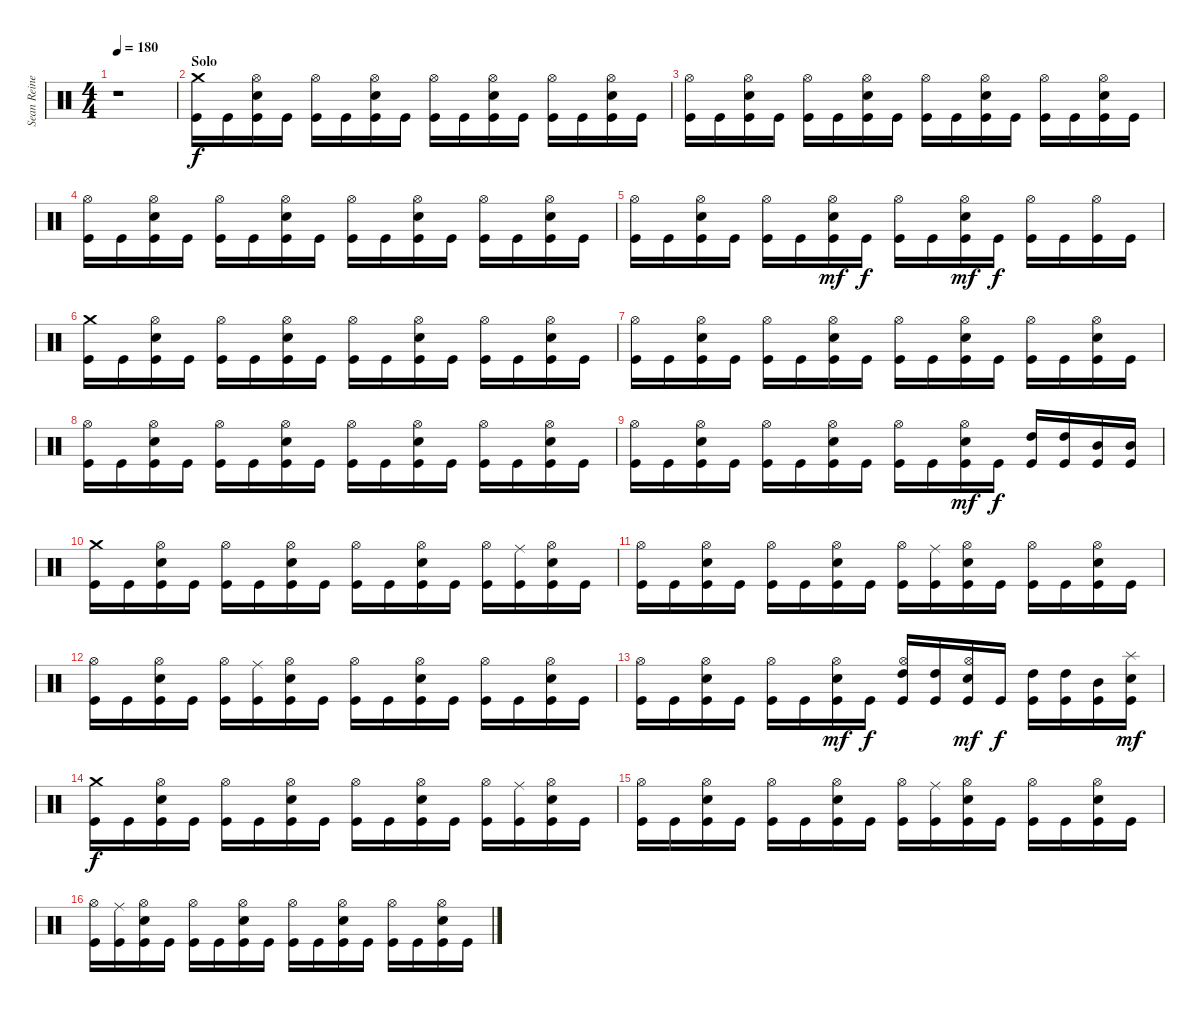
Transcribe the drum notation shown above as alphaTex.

\track ("Sean Reinert " "Sean Reine") {instrument percussion}
\staff {score}
\articulation defaults
\ts (4 4)
\tempo 180
\clef neutral
\ks c
r.1{dy f} |
\section ("" "Solo")
("Crash medium (hit)" "Kick (hit)").16 "Kick (hit)".16 ("Hi-Hat (open)" "Electric Snare (hit)" "Kick (hit)").16 "Kick (hit)".16 ("Hi-Hat (open)" "Kick (hit)").16 "Kick (hit)".16 ("Hi-Hat (open)" "Electric Snare (hit)" "Kick (hit)").16 "Kick (hit)".16 ("Hi-Hat (open)" "Kick (hit)").16 "Kick (hit)".16 ("Hi-Hat (open)" "Electric Snare (hit)" "Kick (hit)").16 "Kick (hit)".16 ("Hi-Hat (open)" "Kick (hit)").16 "Kick (hit)".16 ("Hi-Hat (open)" "Electric Snare (hit)" "Kick (hit)").16 "Kick (hit)".16 |
("Hi-Hat (open)" "Kick (hit)").16 "Kick (hit)".16 ("Hi-Hat (open)" "Electric Snare (hit)" "Kick (hit)").16 "Kick (hit)".16 ("Hi-Hat (open)" "Kick (hit)").16 "Kick (hit)".16 ("Hi-Hat (open)" "Electric Snare (hit)" "Kick (hit)").16 "Kick (hit)".16 ("Hi-Hat (open)" "Kick (hit)").16 "Kick (hit)".16 ("Hi-Hat (open)" "Electric Snare (hit)" "Kick (hit)").16 "Kick (hit)".16 ("Hi-Hat (open)" "Kick (hit)").16 "Kick (hit)".16 ("Hi-Hat (open)" "Electric Snare (hit)" "Kick (hit)").16 "Kick (hit)".16 |
("Hi-Hat (open)" "Kick (hit)").16 "Kick (hit)".16 ("Hi-Hat (open)" "Electric Snare (hit)" "Kick (hit)").16 "Kick (hit)".16 ("Hi-Hat (open)" "Kick (hit)").16 "Kick (hit)".16 ("Hi-Hat (open)" "Electric Snare (hit)" "Kick (hit)").16 "Kick (hit)".16 ("Hi-Hat (open)" "Kick (hit)").16 "Kick (hit)".16 ("Hi-Hat (open)" "Electric Snare (hit)" "Kick (hit)").16 "Kick (hit)".16 ("Hi-Hat (open)" "Kick (hit)").16 "Kick (hit)".16 ("Hi-Hat (open)" "Electric Snare (hit)" "Kick (hit)").16 "Kick (hit)".16 |
("Hi-Hat (open)" "Kick (hit)").16 "Kick (hit)".16 ("Hi-Hat (open)" "Electric Snare (hit)" "Kick (hit)").16 "Kick (hit)".16 ("Hi-Hat (open)" "Kick (hit)").16 "Kick (hit)".16 ("Hi-Hat (open)" "Electric Snare (hit)" "Kick (hit)").16{dy mf} "Kick (hit)".16{dy f} ("Hi-Hat (open)" "Kick (hit)").16 "Kick (hit)".16 ("Hi-Hat (open)" "Electric Snare (hit)" "Kick (hit)").16{dy mf} "Kick (hit)".16{dy f} ("Hi-Hat (open)" "Kick (hit)").16 "Kick (hit)".16 ("Hi-Hat (open)" "Kick (hit)").16 "Kick (hit)".16 |
("Crash medium (hit)" "Kick (hit)").16 "Kick (hit)".16 ("Hi-Hat (open)" "Electric Snare (hit)" "Kick (hit)").16 "Kick (hit)".16 ("Hi-Hat (open)" "Kick (hit)").16 "Kick (hit)".16 ("Hi-Hat (open)" "Electric Snare (hit)" "Kick (hit)").16 "Kick (hit)".16 ("Hi-Hat (open)" "Kick (hit)").16 "Kick (hit)".16 ("Hi-Hat (open)" "Electric Snare (hit)" "Kick (hit)").16 "Kick (hit)".16 ("Hi-Hat (open)" "Kick (hit)").16 "Kick (hit)".16 ("Hi-Hat (open)" "Electric Snare (hit)" "Kick (hit)").16 "Kick (hit)".16 |
("Hi-Hat (open)" "Kick (hit)").16 "Kick (hit)".16 ("Hi-Hat (open)" "Electric Snare (hit)" "Kick (hit)").16 "Kick (hit)".16 ("Hi-Hat (open)" "Kick (hit)").16 "Kick (hit)".16 ("Hi-Hat (open)" "Electric Snare (hit)" "Kick (hit)").16 "Kick (hit)".16 ("Hi-Hat (open)" "Kick (hit)").16 "Kick (hit)".16 ("Hi-Hat (open)" "Electric Snare (hit)" "Kick (hit)").16 "Kick (hit)".16 ("Hi-Hat (open)" "Kick (hit)").16 "Kick (hit)".16 ("Hi-Hat (open)" "Electric Snare (hit)" "Kick (hit)").16 "Kick (hit)".16 |
("Hi-Hat (open)" "Kick (hit)").16 "Kick (hit)".16 ("Hi-Hat (open)" "Electric Snare (hit)" "Kick (hit)").16 "Kick (hit)".16 ("Hi-Hat (open)" "Kick (hit)").16 "Kick (hit)".16 ("Hi-Hat (open)" "Electric Snare (hit)" "Kick (hit)").16 "Kick (hit)".16 ("Hi-Hat (open)" "Kick (hit)").16 "Kick (hit)".16 ("Hi-Hat (open)" "Electric Snare (hit)" "Kick (hit)").16 "Kick (hit)".16 ("Hi-Hat (open)" "Kick (hit)").16 "Kick (hit)".16 ("Hi-Hat (open)" "Electric Snare (hit)" "Kick (hit)").16 "Kick (hit)".16 |
("Hi-Hat (open)" "Kick (hit)").16 "Kick (hit)".16 ("Hi-Hat (open)" "Electric Snare (hit)" "Kick (hit)").16 "Kick (hit)".16 ("Hi-Hat (open)" "Kick (hit)").16 "Kick (hit)".16 ("Hi-Hat (open)" "Electric Snare (hit)" "Kick (hit)").16 "Kick (hit)".16 ("Hi-Hat (open)" "Kick (hit)").16 "Kick (hit)".16 ("Hi-Hat (open)" "Electric Snare (hit)" "Kick (hit)").16{dy mf} "Kick (hit)".16{dy f} ("High Tom (hit)" "Kick (hit)").16 ("High Tom (hit)" "Kick (hit)").16 ("Mid Tom (hit)" "Kick (hit)").16 ("Mid Tom (hit)" "Kick (hit)").16 |
("Crash medium (hit)" "Kick (hit)").16 "Kick (hit)".16 ("Hi-Hat (open)" "Electric Snare (hit)" "Kick (hit)").16 "Kick (hit)".16 ("Hi-Hat (open)" "Kick (hit)").16 "Kick (hit)".16 ("Hi-Hat (open)" "Electric Snare (hit)" "Kick (hit)").16 "Kick (hit)".16 ("Hi-Hat (open)" "Kick (hit)").16 "Kick (hit)".16 ("Hi-Hat (open)" "Electric Snare (hit)" "Kick (hit)").16 "Kick (hit)".16 ("Hi-Hat (open)" "Kick (hit)").16 ("Ride (middle)" "Kick (hit)").16 ("Hi-Hat (open)" "Electric Snare (hit)" "Kick (hit)").16 "Kick (hit)".16 |
("Hi-Hat (open)" "Kick (hit)").16 "Kick (hit)".16 ("Hi-Hat (open)" "Electric Snare (hit)" "Kick (hit)").16 "Kick (hit)".16 ("Hi-Hat (open)" "Kick (hit)").16 "Kick (hit)".16 ("Hi-Hat (open)" "Electric Snare (hit)" "Kick (hit)").16 "Kick (hit)".16 ("Hi-Hat (open)" "Kick (hit)").16 ("Ride (middle)" "Kick (hit)").16 ("Hi-Hat (open)" "Electric Snare (hit)" "Kick (hit)").16 "Kick (hit)".16 ("Hi-Hat (open)" "Kick (hit)").16 "Kick (hit)".16 ("Hi-Hat (open)" "Electric Snare (hit)" "Kick (hit)").16 "Kick (hit)".16 |
("Hi-Hat (open)" "Kick (hit)").16 "Kick (hit)".16 ("Hi-Hat (open)" "Electric Snare (hit)" "Kick (hit)").16 "Kick (hit)".16 ("Hi-Hat (open)" "Kick (hit)").16 ("Ride (middle)" "Kick (hit)").16 ("Hi-Hat (open)" "Electric Snare (hit)" "Kick (hit)").16 "Kick (hit)".16 ("Hi-Hat (open)" "Kick (hit)").16 "Kick (hit)".16 ("Hi-Hat (open)" "Electric Snare (hit)" "Kick (hit)").16 "Kick (hit)".16 ("Hi-Hat (open)" "Kick (hit)").16 "Kick (hit)".16 ("Hi-Hat (open)" "Electric Snare (hit)" "Kick (hit)").16 "Kick (hit)".16 |
("Hi-Hat (open)" "Kick (hit)").16 "Kick (hit)".16 ("Hi-Hat (open)" "Electric Snare (hit)" "Kick (hit)").16 "Kick (hit)".16 ("Hi-Hat (open)" "Kick (hit)").16 "Kick (hit)".16 ("Hi-Hat (open)" "Electric Snare (hit)" "Kick (hit)").16{dy mf} "Kick (hit)".16{dy f} ("Hi-Hat (open)" "High Tom (hit)" "Kick (hit)").16 ("High Tom (hit)" "Kick (hit)").16 ("Hi-Hat (open)" "Electric Snare (hit)" "Kick (hit)").16{dy mf} "Kick (hit)".16{dy f} ("High Tom (hit)" "Kick (hit)").16 ("High Tom (hit)" "Kick (hit)").16 ("Mid Tom (hit)" "Kick (hit)").16 ("Splash (hit)" "Electric Snare (hit)" "Kick (hit)").16{dy mf} |
("Crash medium (hit)" "Kick (hit)").16{dy f} "Kick (hit)".16 ("Hi-Hat (open)" "Electric Snare (hit)" "Kick (hit)").16 "Kick (hit)".16 ("Hi-Hat (open)" "Kick (hit)").16 "Kick (hit)".16 ("Hi-Hat (open)" "Electric Snare (hit)" "Kick (hit)").16 "Kick (hit)".16 ("Hi-Hat (open)" "Kick (hit)").16 "Kick (hit)".16 ("Hi-Hat (open)" "Electric Snare (hit)" "Kick (hit)").16 "Kick (hit)".16 ("Hi-Hat (open)" "Kick (hit)").16 ("Ride (middle)" "Kick (hit)").16 ("Hi-Hat (open)" "Electric Snare (hit)" "Kick (hit)").16 "Kick (hit)".16 |
("Hi-Hat (open)" "Kick (hit)").16 "Kick (hit)".16 ("Hi-Hat (open)" "Electric Snare (hit)" "Kick (hit)").16 "Kick (hit)".16 ("Hi-Hat (open)" "Kick (hit)").16 "Kick (hit)".16 ("Hi-Hat (open)" "Electric Snare (hit)" "Kick (hit)").16 "Kick (hit)".16 ("Hi-Hat (open)" "Kick (hit)").16 ("Ride (middle)" "Kick (hit)").16 ("Hi-Hat (open)" "Electric Snare (hit)" "Kick (hit)").16 "Kick (hit)".16 ("Hi-Hat (open)" "Kick (hit)").16 "Kick (hit)".16 ("Hi-Hat (open)" "Electric Snare (hit)" "Kick (hit)").16 "Kick (hit)".16 |
("Hi-Hat (open)" "Kick (hit)").16 ("Ride (middle)" "Kick (hit)").16 ("Hi-Hat (open)" "Electric Snare (hit)" "Kick (hit)").16 "Kick (hit)".16 ("Hi-Hat (open)" "Kick (hit)").16 "Kick (hit)".16 ("Hi-Hat (open)" "Electric Snare (hit)" "Kick (hit)").16 "Kick (hit)".16 ("Hi-Hat (open)" "Kick (hit)").16 "Kick (hit)".16 ("Hi-Hat (open)" "Electric Snare (hit)" "Kick (hit)").16 "Kick (hit)".16 ("Hi-Hat (open)" "Kick (hit)").16 "Kick (hit)".16 ("Hi-Hat (open)" "Electric Snare (hit)" "Kick (hit)").16 "Kick (hit)".16
